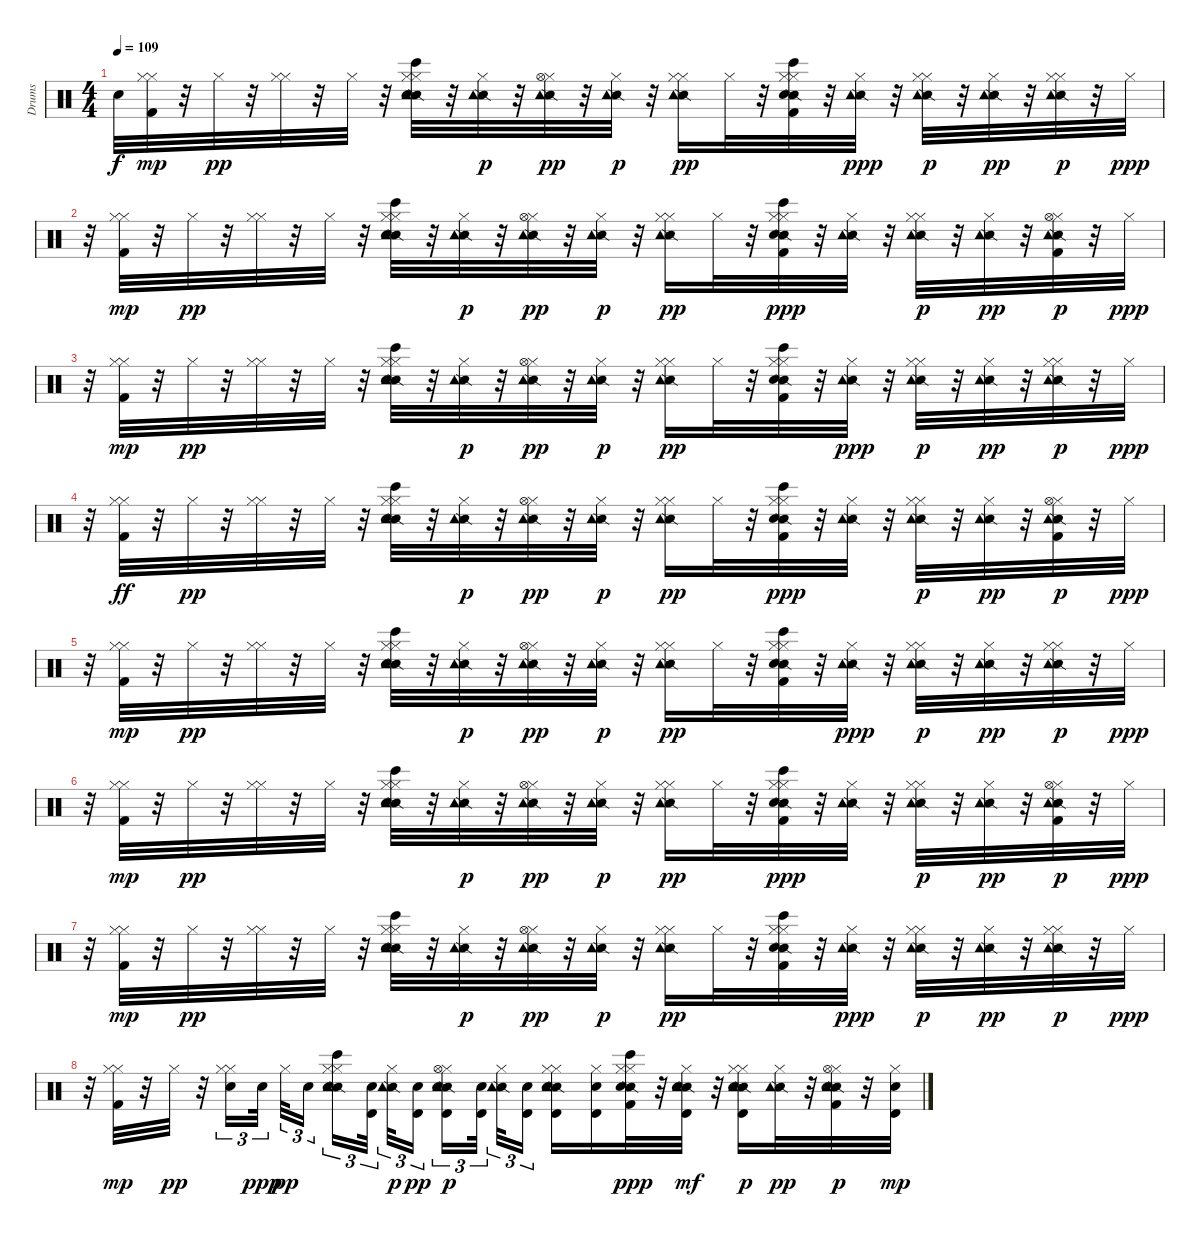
\track ("Drums" "Drums") {instrument percussion}
\staff {score}
\articulation defaults
\ts (4 4)
\tempo 109
\clef neutral
\ks c "Snare (hit)"{t}.32{dy f}
("Kick (hit) 2" "Hi-Hat (closed)" "Hi-Hat (closed)").32{dy mp} r.32 "Hi-Hat (closed)".32{dy pp} r.32 ("Hi-Hat (closed)" "Hi-Hat (closed)").32 r.32 "Hi-Hat (closed)".32 r.32 ("Hi-Hat (closed)" "Bongo High (hit)" "Snare (side stick) 2" "Electric Snare (hit)" "Hi-Hat (closed)" "Tambourine (hit)").32 r.32 ("Hi-Hat (closed)" "Snare (side stick) 2" "Tambourine (hit)").32{dy p} r.32 ("Hi-Hat (closed)" "Snare (side stick) 2" "Hi-Hat (open)" "Tambourine (hit)").32{dy pp} r.32 ("Hi-Hat (closed)" "Snare (side stick) 2" "Tambourine (hit)").32{dy p} r.32 ("Hi-Hat (closed)" "Snare (side stick) 2" "Hi-Hat (closed)" "Tambourine (hit)").16{dy pp} "Hi-Hat (closed)".32 r.32 ("Kick (hit) 2" "Hi-Hat (closed)" "Bongo High (hit)" "Snare (side stick) 2" "Electric Snare (hit)" "Hi-Hat (closed)").32 r.32 ("Hi-Hat (closed)" "Snare (side stick) 2" "Tambourine (hit)").32{dy ppp} r.32 ("Hi-Hat (closed)" "Snare (side stick) 2" "Hi-Hat (closed)" "Tambourine (hit)").32{dy p} r.32 ("Hi-Hat (closed)" "Snare (side stick) 2" "Tambourine (hit)").32{dy pp} r.32 ("Hi-Hat (closed)" "Snare (side stick) 2" "Hi-Hat (closed)" "Tambourine (hit)").32{dy p} r.32 "Hi-Hat (closed)".32{dy ppp} |
r.32 ("Kick (hit) 2" "Hi-Hat (closed)" "Hi-Hat (closed)").32{dy mp} r.32 "Hi-Hat (closed)".32{dy pp} r.32 ("Hi-Hat (closed)" "Hi-Hat (closed)").32 r.32 "Hi-Hat (closed)".32 r.32 ("Hi-Hat (closed)" "Bongo High (hit)" "Snare (side stick) 2" "Electric Snare (hit)" "Hi-Hat (closed)" "Tambourine (hit)").32 r.32 ("Hi-Hat (closed)" "Snare (side stick) 2" "Tambourine (hit)").32{dy p} r.32 ("Hi-Hat (closed)" "Snare (side stick) 2" "Hi-Hat (open)" "Tambourine (hit)").32{dy pp} r.32 ("Hi-Hat (closed)" "Snare (side stick) 2" "Tambourine (hit)").32{dy p} r.32 ("Hi-Hat (closed)" "Snare (side stick) 2" "Hi-Hat (closed)" "Tambourine (hit)").16{dy pp} "Hi-Hat (closed)".32 r.32 ("Kick (hit) 2" "Hi-Hat (closed)" "Bongo High (hit)" "Snare (side stick) 2" "Electric Snare (hit)" "Hi-Hat (closed)").32{dy ppp} r.32 ("Hi-Hat (closed)" "Snare (side stick) 2" "Tambourine (hit)").32 r.32 ("Hi-Hat (closed)" "Snare (side stick) 2" "Hi-Hat (closed)" "Tambourine (hit)").32{dy p} r.32 ("Hi-Hat (closed)" "Snare (side stick) 2" "Tambourine (hit)").32{dy pp} r.32 ("Kick (hit) 2" "Hi-Hat (closed)" "Snare (side stick) 2" "Hi-Hat (open)" "Tambourine (hit)").32{dy p} r.32 "Hi-Hat (closed)".32{dy ppp} |
r.32 ("Kick (hit) 2" "Hi-Hat (closed)" "Hi-Hat (closed)").32{dy mp} r.32 "Hi-Hat (closed)".32{dy pp} r.32 ("Hi-Hat (closed)" "Hi-Hat (closed)").32 r.32 "Hi-Hat (closed)".32 r.32 ("Hi-Hat (closed)" "Bongo High (hit)" "Snare (side stick) 2" "Electric Snare (hit)" "Hi-Hat (closed)" "Tambourine (hit)").32 r.32 ("Hi-Hat (closed)" "Snare (side stick) 2" "Tambourine (hit)").32{dy p} r.32 ("Hi-Hat (closed)" "Snare (side stick) 2" "Hi-Hat (open)" "Tambourine (hit)").32{dy pp} r.32 ("Hi-Hat (closed)" "Snare (side stick) 2" "Tambourine (hit)").32{dy p} r.32 ("Hi-Hat (closed)" "Snare (side stick) 2" "Hi-Hat (closed)" "Tambourine (hit)").16{dy pp} "Hi-Hat (closed)".32 r.32 ("Kick (hit) 2" "Hi-Hat (closed)" "Bongo High (hit)" "Snare (side stick) 2" "Electric Snare (hit)" "Hi-Hat (closed)").32 r.32 ("Hi-Hat (closed)" "Snare (side stick) 2" "Tambourine (hit)").32{dy ppp} r.32 ("Hi-Hat (closed)" "Snare (side stick) 2" "Hi-Hat (closed)" "Tambourine (hit)").32{dy p} r.32 ("Hi-Hat (closed)" "Snare (side stick) 2" "Tambourine (hit)").32{dy pp} r.32 ("Hi-Hat (closed)" "Snare (side stick) 2" "Hi-Hat (closed)" "Tambourine (hit)").32{dy p} r.32 "Hi-Hat (closed)".32{dy ppp} |
r.32 ("Hi-Hat (closed)" "Hi-Hat (closed)" "Kick (hit) 2").32{dy ff} r.32 "Hi-Hat (closed)".32{dy pp} r.32 ("Hi-Hat (closed)" "Hi-Hat (closed)").32 r.32 "Hi-Hat (closed)".32 r.32 ("Hi-Hat (closed)" "Bongo High (hit)" "Snare (side stick) 2" "Electric Snare (hit)" "Hi-Hat (closed)" "Tambourine (hit)").32 r.32 ("Hi-Hat (closed)" "Snare (side stick) 2" "Tambourine (hit)").32{dy p} r.32 ("Hi-Hat (closed)" "Snare (side stick) 2" "Hi-Hat (open)" "Tambourine (hit)").32{dy pp} r.32 ("Hi-Hat (closed)" "Snare (side stick) 2" "Tambourine (hit)").32{dy p} r.32 ("Hi-Hat (closed)" "Snare (side stick) 2" "Hi-Hat (closed)" "Tambourine (hit)").16{dy pp} "Hi-Hat (closed)".32 r.32 ("Kick (hit) 2" "Hi-Hat (closed)" "Bongo High (hit)" "Snare (side stick) 2" "Electric Snare (hit)" "Hi-Hat (closed)").32{dy ppp} r.32 ("Hi-Hat (closed)" "Snare (side stick) 2" "Tambourine (hit)").32 r.32 ("Hi-Hat (closed)" "Snare (side stick) 2" "Hi-Hat (closed)" "Tambourine (hit)").32{dy p} r.32 ("Hi-Hat (closed)" "Snare (side stick) 2" "Tambourine (hit)").32{dy pp} r.32 ("Kick (hit) 2" "Hi-Hat (closed)" "Snare (side stick) 2" "Hi-Hat (open)" "Tambourine (hit)").32{dy p} r.32 "Hi-Hat (closed)".32{dy ppp} |
r.32 ("Kick (hit) 2" "Hi-Hat (closed)" "Hi-Hat (closed)").32{dy mp} r.32 "Hi-Hat (closed)".32{dy pp} r.32 ("Hi-Hat (closed)" "Hi-Hat (closed)").32 r.32 "Hi-Hat (closed)".32 r.32 ("Hi-Hat (closed)" "Bongo High (hit)" "Snare (side stick) 2" "Electric Snare (hit)" "Hi-Hat (closed)" "Tambourine (hit)").32 r.32 ("Hi-Hat (closed)" "Snare (side stick) 2" "Tambourine (hit)").32{dy p} r.32 ("Hi-Hat (closed)" "Snare (side stick) 2" "Hi-Hat (open)" "Tambourine (hit)").32{dy pp} r.32 ("Hi-Hat (closed)" "Snare (side stick) 2" "Tambourine (hit)").32{dy p} r.32 ("Hi-Hat (closed)" "Snare (side stick) 2" "Hi-Hat (closed)" "Tambourine (hit)").16{dy pp} "Hi-Hat (closed)".32 r.32 ("Kick (hit) 2" "Hi-Hat (closed)" "Bongo High (hit)" "Snare (side stick) 2" "Electric Snare (hit)" "Hi-Hat (closed)").32 r.32 ("Hi-Hat (closed)" "Snare (side stick) 2" "Tambourine (hit)").32{dy ppp} r.32 ("Hi-Hat (closed)" "Snare (side stick) 2" "Hi-Hat (closed)" "Tambourine (hit)").32{dy p} r.32 ("Hi-Hat (closed)" "Snare (side stick) 2" "Tambourine (hit)").32{dy pp} r.32 ("Hi-Hat (closed)" "Snare (side stick) 2" "Hi-Hat (closed)" "Tambourine (hit)").32{dy p} r.32 "Hi-Hat (closed)".32{dy ppp} |
r.32 ("Kick (hit) 2" "Hi-Hat (closed)" "Hi-Hat (closed)").32{dy mp} r.32 "Hi-Hat (closed)".32{dy pp} r.32 ("Hi-Hat (closed)" "Hi-Hat (closed)").32 r.32 "Hi-Hat (closed)".32 r.32 ("Hi-Hat (closed)" "Bongo High (hit)" "Snare (side stick) 2" "Electric Snare (hit)" "Hi-Hat (closed)" "Tambourine (hit)").32 r.32 ("Hi-Hat (closed)" "Snare (side stick) 2" "Tambourine (hit)").32{dy p} r.32 ("Hi-Hat (closed)" "Snare (side stick) 2" "Hi-Hat (open)" "Tambourine (hit)").32{dy pp} r.32 ("Hi-Hat (closed)" "Snare (side stick) 2" "Tambourine (hit)").32{dy p} r.32 ("Hi-Hat (closed)" "Snare (side stick) 2" "Hi-Hat (closed)" "Tambourine (hit)").16{dy pp} "Hi-Hat (closed)".32 r.32 ("Kick (hit) 2" "Hi-Hat (closed)" "Bongo High (hit)" "Snare (side stick) 2" "Electric Snare (hit)" "Hi-Hat (closed)").32{dy ppp} r.32 ("Hi-Hat (closed)" "Snare (side stick) 2" "Tambourine (hit)").32 r.32 ("Hi-Hat (closed)" "Snare (side stick) 2" "Hi-Hat (closed)" "Tambourine (hit)").32{dy p} r.32 ("Hi-Hat (closed)" "Snare (side stick) 2" "Tambourine (hit)").32{dy pp} r.32 ("Kick (hit) 2" "Hi-Hat (closed)" "Snare (side stick) 2" "Hi-Hat (open)" "Tambourine (hit)").32{dy p} r.32 "Hi-Hat (closed)".32{dy ppp} |
r.32 ("Kick (hit) 2" "Hi-Hat (closed)" "Hi-Hat (closed)").32{dy mp} r.32 "Hi-Hat (closed)".32{dy pp} r.32 ("Hi-Hat (closed)" "Hi-Hat (closed)").32 r.32 "Hi-Hat (closed)".32 r.32 ("Hi-Hat (closed)" "Bongo High (hit)" "Snare (side stick) 2" "Electric Snare (hit)" "Hi-Hat (closed)" "Tambourine (hit)").32 r.32 ("Hi-Hat (closed)" "Snare (side stick) 2" "Tambourine (hit)").32{dy p} r.32 ("Hi-Hat (closed)" "Snare (side stick) 2" "Hi-Hat (open)" "Tambourine (hit)").32{dy pp} r.32 ("Hi-Hat (closed)" "Snare (side stick) 2" "Tambourine (hit)").32{dy p} r.32 ("Hi-Hat (closed)" "Snare (side stick) 2" "Hi-Hat (closed)" "Tambourine (hit)").16{dy pp} "Hi-Hat (closed)".32 r.32 ("Kick (hit) 2" "Hi-Hat (closed)" "Bongo High (hit)" "Snare (side stick) 2" "Electric Snare (hit)" "Hi-Hat (closed)").32 r.32 ("Hi-Hat (closed)" "Snare (side stick) 2" "Tambourine (hit)").32{dy ppp} r.32 ("Hi-Hat (closed)" "Snare (side stick) 2" "Hi-Hat (closed)" "Tambourine (hit)").32{dy p} r.32 ("Hi-Hat (closed)" "Snare (side stick) 2" "Tambourine (hit)").32{dy pp} r.32 ("Hi-Hat (closed)" "Snare (side stick) 2" "Hi-Hat (closed)" "Tambourine (hit)").32{dy p} r.32 "Hi-Hat (closed)".32{dy ppp} |
r.32 ("Kick (hit) 2" "Hi-Hat (closed)" "Hi-Hat (closed)").32{dy mp} r.32 "Hi-Hat (closed)".32{dy pp} r.32 ("Hi-Hat (closed)" "Electric Snare (hit)" "Hi-Hat (closed)").16{tu (3 2)} "Electric Snare (hit)".32{tu (3 2) dy ppp beam splitsecondary} "Hi-Hat (closed)".32{tu (3 2) dy pp} "Electric Snare (hit)".16{tu (3 2)} ("Hi-Hat (closed)" "Bongo High (hit)" "Snare (side stick) 2" "Electric Snare (hit)" "Hi-Hat (closed)" "Tambourine (hit)").16{tu (3 2)} ("Electric Snare (hit)" "Timbale high (hit)").32{tu (3 2) beam splitsecondary} ("Hi-Hat (closed)" "Snare (side stick) 2" "Tambourine (hit)").32{tu (3 2) dy p} ("Electric Snare (hit)" "Timbale high (hit)").16{tu (3 2) dy pp beam splitsecondary} ("Hi-Hat (closed)" "Snare (side stick) 2" "Electric Snare (hit)" "Hi-Hat (open)" "Tambourine (hit)" "Timbale high (hit)").16{tu (3 2) dy p} ("Electric Snare (hit)" "Timbale high (hit)").32{tu (3 2) beam splitsecondary} ("Hi-Hat (closed)" "Snare (side stick) 2" "Tambourine (hit)").32{tu (3 2)} ("Electric Snare (hit)" "Timbale high (hit)").16{tu (3 2)} ("Hi-Hat (closed)" "Snare (side stick) 2" "Electric Snare (hit)" "Hi-Hat (closed)" "Tambourine (hit)" "Timbale high (hit)").16 ("Hi-Hat (closed)" "Electric Snare (hit)" "Timbale high (hit)").16 ("Kick (hit) 2" "Hi-Hat (closed)" "Bongo High (hit)" "Snare (side stick) 2" "Electric Snare (hit)" "Hi-Hat (closed)").32{dy ppp} r.32 ("Hi-Hat (closed)" "Snare (side stick) 2" "Electric Snare (hit)" "Tambourine (hit)" "Timbale high (hit)").32{dy mf} r.32 ("Hi-Hat (closed)" "Snare (side stick) 2" "Electric Snare (hit)" "Hi-Hat (closed)" "Tambourine (hit)" "Timbale high (hit)").16{dy p} ("Hi-Hat (closed)" "Snare (side stick) 2" "Tambourine (hit)").32{dy pp} r.32 ("Kick (hit) 2" "Hi-Hat (closed)" "Snare (side stick) 2" "Electric Snare (hit)" "Hi-Hat (open)" "Tambourine (hit)").32{dy p} r.32 ("Hi-Hat (closed)" "Electric Snare (hit)" "Timbale high (hit)").32{dy mp}
